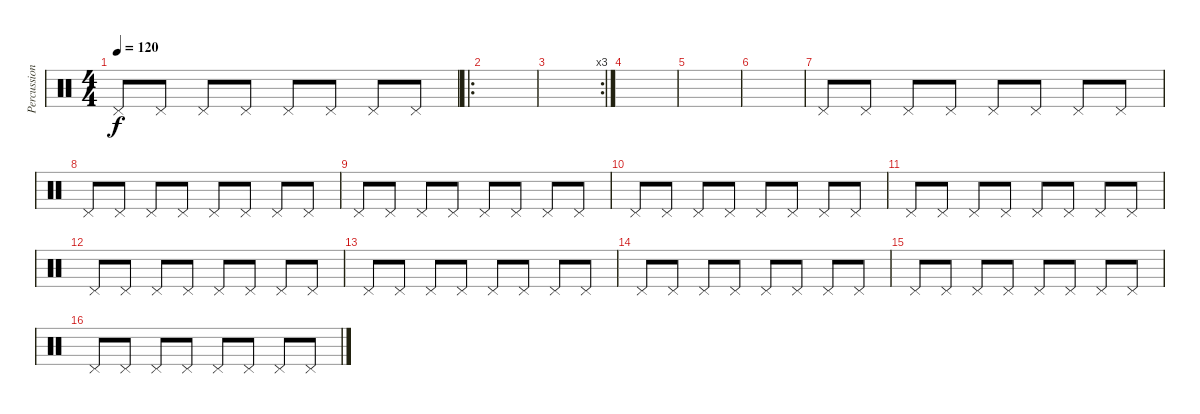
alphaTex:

\track ("Percussions" "Percussion") {instrument percussion}
\staff {score}
\articulation defaults
\ts (4 4)
\tempo 120
\clef neutral
\ks c "Pedal Hi-Hat (hit)".8{dy f} "Pedal Hi-Hat (hit)".8 "Pedal Hi-Hat (hit)".8 "Pedal Hi-Hat (hit)".8 "Pedal Hi-Hat (hit)".8 "Pedal Hi-Hat (hit)".8 "Pedal Hi-Hat (hit)".8 "Pedal Hi-Hat (hit)".8
|
\ro
|
\rc 3
|
|
|
|
"Pedal Hi-Hat (hit)".8 "Pedal Hi-Hat (hit)".8 "Pedal Hi-Hat (hit)".8 "Pedal Hi-Hat (hit)".8 "Pedal Hi-Hat (hit)".8 "Pedal Hi-Hat (hit)".8 "Pedal Hi-Hat (hit)".8 "Pedal Hi-Hat (hit)".8 |
"Pedal Hi-Hat (hit)".8 "Pedal Hi-Hat (hit)".8 "Pedal Hi-Hat (hit)".8 "Pedal Hi-Hat (hit)".8 "Pedal Hi-Hat (hit)".8 "Pedal Hi-Hat (hit)".8 "Pedal Hi-Hat (hit)".8 "Pedal Hi-Hat (hit)".8 |
"Pedal Hi-Hat (hit)".8 "Pedal Hi-Hat (hit)".8 "Pedal Hi-Hat (hit)".8 "Pedal Hi-Hat (hit)".8 "Pedal Hi-Hat (hit)".8 "Pedal Hi-Hat (hit)".8 "Pedal Hi-Hat (hit)".8 "Pedal Hi-Hat (hit)".8 |
"Pedal Hi-Hat (hit)".8 "Pedal Hi-Hat (hit)".8 "Pedal Hi-Hat (hit)".8 "Pedal Hi-Hat (hit)".8 "Pedal Hi-Hat (hit)".8 "Pedal Hi-Hat (hit)".8 "Pedal Hi-Hat (hit)".8 "Pedal Hi-Hat (hit)".8 |
"Pedal Hi-Hat (hit)".8 "Pedal Hi-Hat (hit)".8 "Pedal Hi-Hat (hit)".8 "Pedal Hi-Hat (hit)".8 "Pedal Hi-Hat (hit)".8 "Pedal Hi-Hat (hit)".8 "Pedal Hi-Hat (hit)".8 "Pedal Hi-Hat (hit)".8 |
"Pedal Hi-Hat (hit)".8 "Pedal Hi-Hat (hit)".8 "Pedal Hi-Hat (hit)".8 "Pedal Hi-Hat (hit)".8 "Pedal Hi-Hat (hit)".8 "Pedal Hi-Hat (hit)".8 "Pedal Hi-Hat (hit)".8 "Pedal Hi-Hat (hit)".8 |
"Pedal Hi-Hat (hit)".8 "Pedal Hi-Hat (hit)".8 "Pedal Hi-Hat (hit)".8 "Pedal Hi-Hat (hit)".8 "Pedal Hi-Hat (hit)".8 "Pedal Hi-Hat (hit)".8 "Pedal Hi-Hat (hit)".8 "Pedal Hi-Hat (hit)".8 |
"Pedal Hi-Hat (hit)".8 "Pedal Hi-Hat (hit)".8 "Pedal Hi-Hat (hit)".8 "Pedal Hi-Hat (hit)".8 "Pedal Hi-Hat (hit)".8 "Pedal Hi-Hat (hit)".8 "Pedal Hi-Hat (hit)".8 "Pedal Hi-Hat (hit)".8 |
"Pedal Hi-Hat (hit)".8 "Pedal Hi-Hat (hit)".8 "Pedal Hi-Hat (hit)".8 "Pedal Hi-Hat (hit)".8 "Pedal Hi-Hat (hit)".8 "Pedal Hi-Hat (hit)".8 "Pedal Hi-Hat (hit)".8 "Pedal Hi-Hat (hit)".8 |
"Pedal Hi-Hat (hit)".8 "Pedal Hi-Hat (hit)".8 "Pedal Hi-Hat (hit)".8 "Pedal Hi-Hat (hit)".8 "Pedal Hi-Hat (hit)".8 "Pedal Hi-Hat (hit)".8 "Pedal Hi-Hat (hit)".8 "Pedal Hi-Hat (hit)".8
